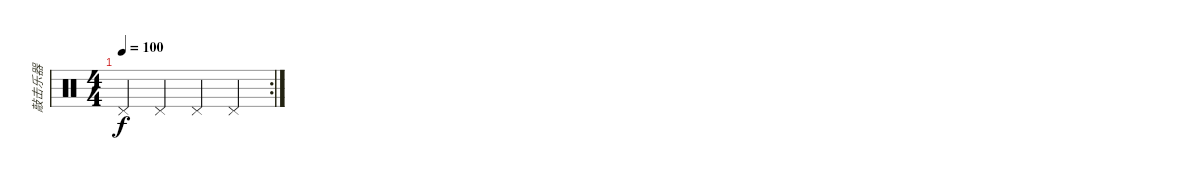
\track ("敲击乐器" "敲击乐器") {instrument percussion}
\staff {score}
\articulation defaults
\rc 2
\ts (4 4)
\tempo 100
\clef neutral
\ks c "Pedal Hi-Hat (hit)".4{dy f} "Pedal Hi-Hat (hit)".4 "Pedal Hi-Hat (hit)".4 "Pedal Hi-Hat (hit)".4
